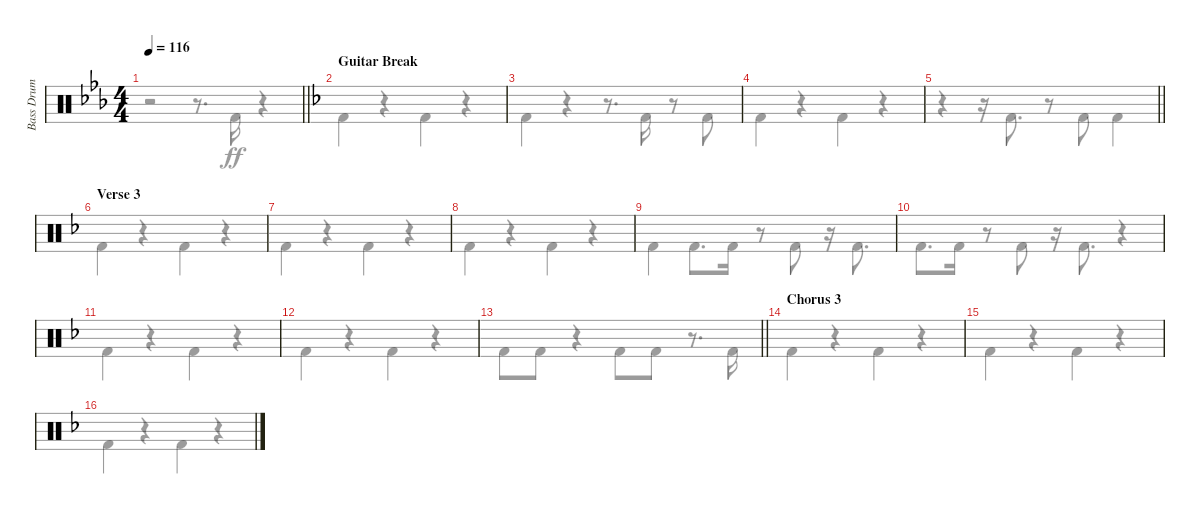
\track ("Bass Drum" "Bass Drum") {instrument percussion}
\staff {score}
\articulation defaults
\voice
\ts (4 4)
\tempo 116
\clef neutral
\barLineRight lightlight
\ks eb
|
\section ("" "Guitar Break")
\ks f
|
|
|
\barLineRight lightlight
|
\section ("" "Verse 3")
|
|
|
|
|
|
|
\barLineRight lightlight
|
\section ("" "Chorus 3")
|
|
\voice
\clef neutral
\barLineRight lightlight
\ks eb
r.2{dy ff} r.8{d} "Kick (hit) 2".16 r.4 |
\ks f "Kick (hit) 2".4
r.4 "Kick (hit) 2".4 r.4 |
"Kick (hit) 2".4 r.4 r.8{d} "Kick (hit) 2".16 r.8 "Kick (hit) 2".8 |
"Kick (hit) 2".4 r.4 "Kick (hit) 2".4 r.4 |
\barLineRight lightlight
r.4 r.16 "Kick (hit) 2".8{d} r.8 "Kick (hit) 2".8 "Kick (hit) 2".4 |
"Kick (hit) 2".4 r.4 "Kick (hit) 2".4 r.4 |
"Kick (hit) 2".4 r.4 "Kick (hit) 2".4 r.4 |
"Kick (hit) 2".4 r.4 "Kick (hit) 2".4 r.4 |
"Kick (hit) 2".4 "Kick (hit) 2".8{d} "Kick (hit) 2".16 r.8 "Kick (hit) 2".8 r.16 "Kick (hit) 2".8{d} |
"Kick (hit) 2".8{d} "Kick (hit) 2".16 r.8 "Kick (hit) 2".8 r.16 "Kick (hit) 2".8{d} r.4 |
"Kick (hit) 2".4 r.4 "Kick (hit) 2".4 r.4 |
"Kick (hit) 2".4 r.4 "Kick (hit) 2".4 r.4 |
\barLineRight lightlight "Kick (hit) 2".8 "Kick (hit) 2".8
r.4 "Kick (hit) 2".8 "Kick (hit) 2".8 r.8{d} "Kick (hit) 2".16 |
"Kick (hit) 2".4 r.4 "Kick (hit) 2".4 r.4 |
"Kick (hit) 2".4 r.4 "Kick (hit) 2".4 r.4 |
"Kick (hit) 2".4 r.4 "Kick (hit) 2".4 r.4
